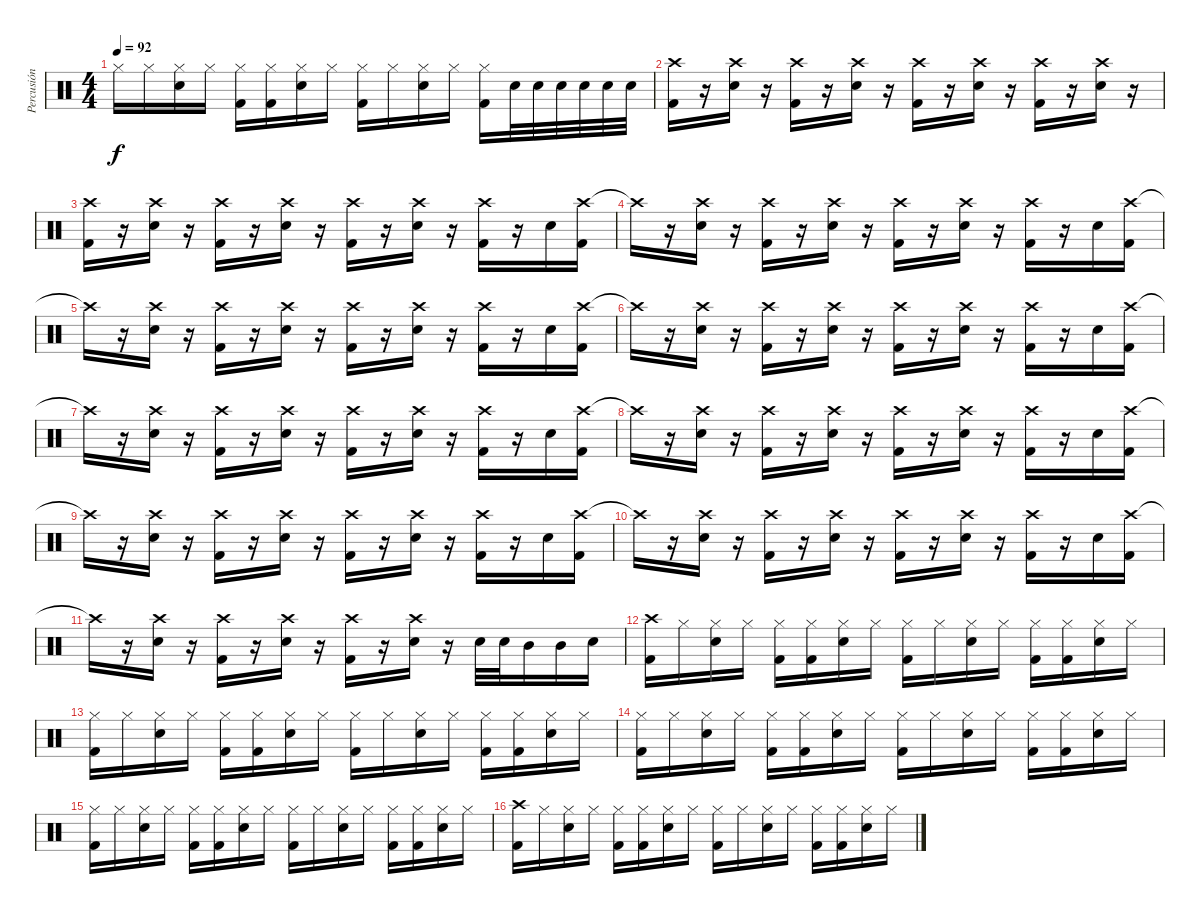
\track ("Percusión" "Percusión") {instrument percussion}
\staff {score}
\articulation defaults
\ts (4 4)
\tempo 92
\clef neutral
\ks c "Hi-Hat (closed)"{t}.16{dy f} "Hi-Hat (closed)".16
("Hi-Hat (closed)" "Electric Snare (hit)").16 "Hi-Hat (closed)".16 ("Hi-Hat (closed)" "Kick (hit) 2").16 ("Hi-Hat (closed)" "Kick (hit) 2").16 ("Hi-Hat (closed)" "Electric Snare (hit)").16 "Hi-Hat (closed)".16 ("Hi-Hat (closed)" "Kick (hit) 2").16 "Hi-Hat (closed)".16 ("Hi-Hat (closed)" "Electric Snare (hit)").16 "Hi-Hat (closed)".16 ("Hi-Hat (closed)" "Kick (hit) 2").16 "Electric Snare (hit)".32 "Electric Snare (hit)".32 "Electric Snare (hit)".32 "Electric Snare (hit)".32 "Electric Snare (hit)".32 "Electric Snare (hit)".32 |
("Crash high (hit)" "Kick (hit) 2").16 r.16 ("Crash high (hit)" "Electric Snare (hit)").16 r.16 ("Crash high (hit)" "Kick (hit) 2").16 r.16 ("Crash high (hit)" "Electric Snare (hit)").16 r.16 ("Crash high (hit)" "Kick (hit) 2").16 r.16 ("Crash high (hit)" "Electric Snare (hit)").16 r.16 ("Crash high (hit)" "Kick (hit) 2").16 r.16 ("Crash high (hit)" "Electric Snare (hit)").16 r.16 |
("Crash high (hit)" "Kick (hit) 2").16 r.16 ("Crash high (hit)" "Electric Snare (hit)").16 r.16 ("Crash high (hit)" "Kick (hit) 2").16 r.16 ("Crash high (hit)" "Electric Snare (hit)").16 r.16 ("Crash high (hit)" "Kick (hit) 2").16 r.16 ("Crash high (hit)" "Electric Snare (hit)").16 r.16 ("Crash high (hit)" "Kick (hit) 2").16 r.16 "Electric Snare (hit)".16 ("Crash high (hit)" "Kick (hit) 2").16 |
"Crash high (hit)"{t}.16 r.16 ("Crash high (hit)" "Electric Snare (hit)").16 r.16 ("Crash high (hit)" "Kick (hit) 2").16 r.16 ("Crash high (hit)" "Electric Snare (hit)").16 r.16 ("Crash high (hit)" "Kick (hit) 2").16 r.16 ("Crash high (hit)" "Electric Snare (hit)").16 r.16 ("Crash high (hit)" "Kick (hit) 2").16 r.16 "Electric Snare (hit)".16 ("Crash high (hit)" "Kick (hit) 2").16 |
"Crash high (hit)"{t}.16 r.16 ("Crash high (hit)" "Electric Snare (hit)").16 r.16 ("Crash high (hit)" "Kick (hit) 2").16 r.16 ("Crash high (hit)" "Electric Snare (hit)").16 r.16 ("Crash high (hit)" "Kick (hit) 2").16 r.16 ("Crash high (hit)" "Electric Snare (hit)").16 r.16 ("Crash high (hit)" "Kick (hit) 2").16 r.16 "Electric Snare (hit)".16 ("Crash high (hit)" "Kick (hit) 2").16 |
"Crash high (hit)"{t}.16 r.16 ("Crash high (hit)" "Electric Snare (hit)").16 r.16 ("Crash high (hit)" "Kick (hit) 2").16 r.16 ("Crash high (hit)" "Electric Snare (hit)").16 r.16 ("Crash high (hit)" "Kick (hit) 2").16 r.16 ("Crash high (hit)" "Electric Snare (hit)").16 r.16 ("Crash high (hit)" "Kick (hit) 2").16 r.16 "Electric Snare (hit)".16 ("Crash high (hit)" "Kick (hit) 2").16 |
"Crash high (hit)"{t}.16 r.16 ("Crash high (hit)" "Electric Snare (hit)").16 r.16 ("Crash high (hit)" "Kick (hit) 2").16 r.16 ("Crash high (hit)" "Electric Snare (hit)").16 r.16 ("Crash high (hit)" "Kick (hit) 2").16 r.16 ("Crash high (hit)" "Electric Snare (hit)").16 r.16 ("Crash high (hit)" "Kick (hit) 2").16 r.16 "Electric Snare (hit)".16 ("Crash high (hit)" "Kick (hit) 2").16 |
"Crash high (hit)"{t}.16 r.16 ("Crash high (hit)" "Electric Snare (hit)").16 r.16 ("Crash high (hit)" "Kick (hit) 2").16 r.16 ("Crash high (hit)" "Electric Snare (hit)").16 r.16 ("Crash high (hit)" "Kick (hit) 2").16 r.16 ("Crash high (hit)" "Electric Snare (hit)").16 r.16 ("Crash high (hit)" "Kick (hit) 2").16 r.16 "Electric Snare (hit)".16 ("Crash high (hit)" "Kick (hit) 2").16 |
"Crash high (hit)"{t}.16 r.16 ("Crash high (hit)" "Electric Snare (hit)").16 r.16 ("Crash high (hit)" "Kick (hit) 2").16 r.16 ("Crash high (hit)" "Electric Snare (hit)").16 r.16 ("Crash high (hit)" "Kick (hit) 2").16 r.16 ("Crash high (hit)" "Electric Snare (hit)").16 r.16 ("Crash high (hit)" "Kick (hit) 2").16 r.16 "Electric Snare (hit)".16 ("Crash high (hit)" "Kick (hit) 2").16 |
"Crash high (hit)"{t}.16 r.16 ("Crash high (hit)" "Electric Snare (hit)").16 r.16 ("Crash high (hit)" "Kick (hit) 2").16 r.16 ("Crash high (hit)" "Electric Snare (hit)").16 r.16 ("Crash high (hit)" "Kick (hit) 2").16 r.16 ("Crash high (hit)" "Electric Snare (hit)").16 r.16 ("Crash high (hit)" "Kick (hit) 2").16 r.16 "Electric Snare (hit)".16 ("Crash high (hit)" "Kick (hit) 2").16 |
"Crash high (hit)"{t}.16 r.16 ("Crash high (hit)" "Electric Snare (hit)").16 r.16 ("Crash high (hit)" "Kick (hit) 2").16 r.16 ("Crash high (hit)" "Electric Snare (hit)").16 r.16 ("Crash high (hit)" "Kick (hit) 2").16 r.16 ("Crash high (hit)" "Electric Snare (hit)").16 r.16 "Electric Snare (hit)".32 "Electric Snare (hit)".32 "Mid Tom (hit)".16 "Mid Tom (hit)".16 "Electric Snare (hit)".16 |
("Crash high (hit)" "Kick (hit) 2").16 "Hi-Hat (closed)".16 ("Hi-Hat (closed)" "Electric Snare (hit)").16 "Hi-Hat (closed)".16 ("Hi-Hat (closed)" "Kick (hit) 2").16 ("Hi-Hat (closed)" "Kick (hit) 2").16 ("Hi-Hat (closed)" "Electric Snare (hit)").16 "Hi-Hat (closed)".16 ("Hi-Hat (closed)" "Kick (hit) 2").16 "Hi-Hat (closed)".16 ("Hi-Hat (closed)" "Electric Snare (hit)").16 "Hi-Hat (closed)".16 ("Hi-Hat (closed)" "Kick (hit) 2").16 ("Hi-Hat (closed)" "Kick (hit) 2").16 ("Hi-Hat (closed)" "Electric Snare (hit)").16 "Hi-Hat (closed)".16 |
("Hi-Hat (closed)" "Kick (hit) 2").16 "Hi-Hat (closed)".16 ("Hi-Hat (closed)" "Electric Snare (hit)").16 "Hi-Hat (closed)".16 ("Hi-Hat (closed)" "Kick (hit) 2").16 ("Hi-Hat (closed)" "Kick (hit) 2").16 ("Hi-Hat (closed)" "Electric Snare (hit)").16 "Hi-Hat (closed)".16 ("Hi-Hat (closed)" "Kick (hit) 2").16 "Hi-Hat (closed)".16 ("Hi-Hat (closed)" "Electric Snare (hit)").16 "Hi-Hat (closed)".16 ("Hi-Hat (closed)" "Kick (hit) 2").16 ("Hi-Hat (closed)" "Kick (hit) 2").16 ("Hi-Hat (closed)" "Electric Snare (hit)").16 "Hi-Hat (closed)".16 |
("Hi-Hat (closed)" "Kick (hit) 2").16 "Hi-Hat (closed)".16 ("Hi-Hat (closed)" "Electric Snare (hit)").16 "Hi-Hat (closed)".16 ("Hi-Hat (closed)" "Kick (hit) 2").16 ("Hi-Hat (closed)" "Kick (hit) 2").16 ("Hi-Hat (closed)" "Electric Snare (hit)").16 "Hi-Hat (closed)".16 ("Hi-Hat (closed)" "Kick (hit) 2").16 "Hi-Hat (closed)".16 ("Hi-Hat (closed)" "Electric Snare (hit)").16 "Hi-Hat (closed)".16 ("Hi-Hat (closed)" "Kick (hit) 2").16 ("Hi-Hat (closed)" "Kick (hit) 2").16 ("Hi-Hat (closed)" "Electric Snare (hit)").16 "Hi-Hat (closed)".16 |
("Hi-Hat (closed)" "Kick (hit) 2").16 "Hi-Hat (closed)".16 ("Hi-Hat (closed)" "Electric Snare (hit)").16 "Hi-Hat (closed)".16 ("Hi-Hat (closed)" "Kick (hit) 2").16 ("Hi-Hat (closed)" "Kick (hit) 2").16 ("Hi-Hat (closed)" "Electric Snare (hit)").16 "Hi-Hat (closed)".16 ("Hi-Hat (closed)" "Kick (hit) 2").16 "Hi-Hat (closed)".16 ("Hi-Hat (closed)" "Electric Snare (hit)").16 "Hi-Hat (closed)".16 ("Hi-Hat (closed)" "Kick (hit) 2").16 ("Hi-Hat (closed)" "Kick (hit) 2").16 ("Hi-Hat (closed)" "Electric Snare (hit)").16 "Hi-Hat (closed)".16 |
("Crash high (hit)" "Kick (hit) 2").16 "Hi-Hat (closed)".16 ("Hi-Hat (closed)" "Electric Snare (hit)").16 "Hi-Hat (closed)".16 ("Hi-Hat (closed)" "Kick (hit) 2").16 ("Hi-Hat (closed)" "Kick (hit) 2").16 ("Hi-Hat (closed)" "Electric Snare (hit)").16 "Hi-Hat (closed)".16 ("Hi-Hat (closed)" "Kick (hit) 2").16 "Hi-Hat (closed)".16 ("Hi-Hat (closed)" "Electric Snare (hit)").16 "Hi-Hat (closed)".16 ("Hi-Hat (closed)" "Kick (hit) 2").16 ("Hi-Hat (closed)" "Kick (hit) 2").16 ("Hi-Hat (closed)" "Electric Snare (hit)").16 "Hi-Hat (closed)".16
